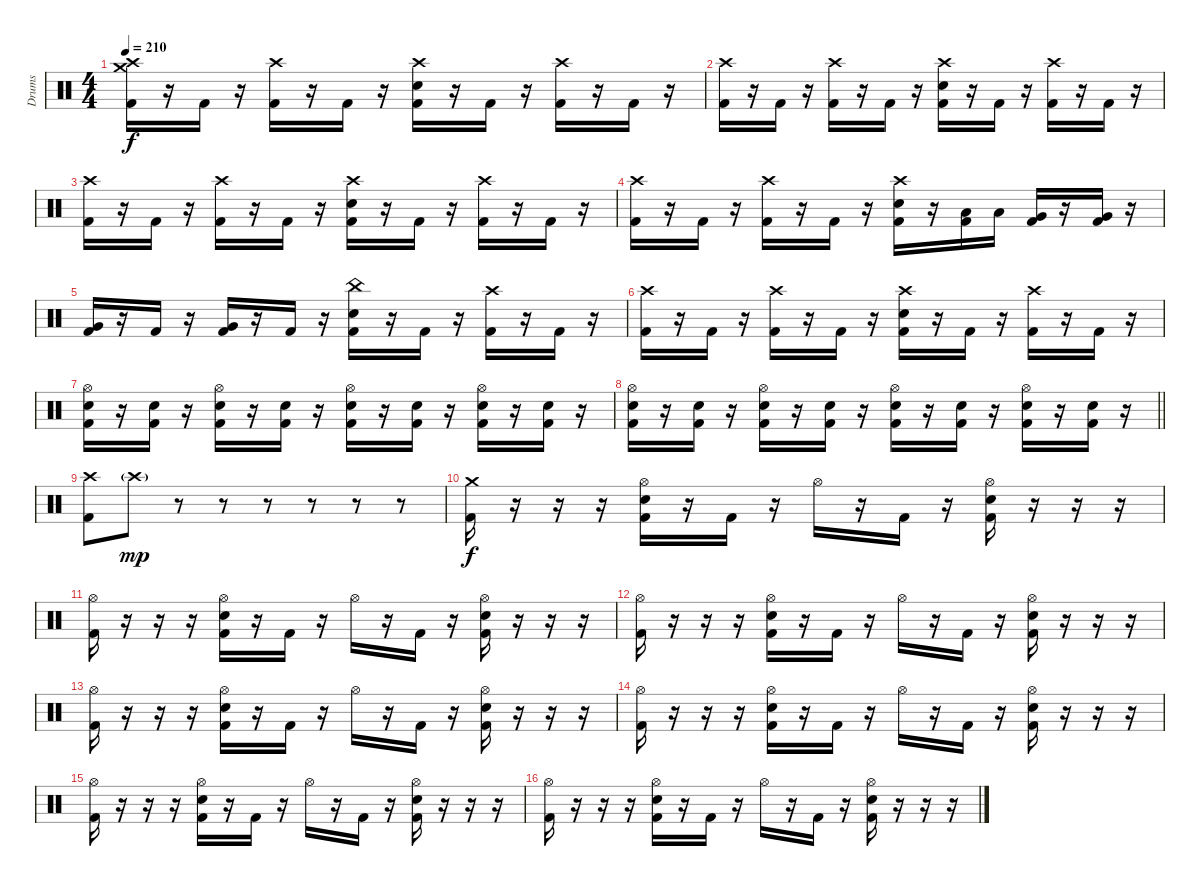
\track ("Drums" "Drums") {instrument percussion}
\staff {score}
\articulation defaults
\ts (4 4)
\tempo 210
\clef neutral
\ks c
("Crash high (hit)" "Crash medium (hit)" "Kick (hit) 2").16{dy f} r.16 "Kick (hit) 2".16 r.16 ("Crash high (hit)" "Kick (hit) 2").16 r.16 "Kick (hit) 2".16 r.16 ("Crash high (hit)" "Electric Snare (hit)" "Kick (hit) 2").16 r.16 "Kick (hit) 2".16 r.16 ("Crash high (hit)" "Kick (hit) 2").16 r.16 "Kick (hit) 2".16 r.16 |
("Crash high (hit)" "Kick (hit) 2").16 r.16 "Kick (hit) 2".16 r.16 ("Crash high (hit)" "Kick (hit) 2").16 r.16 "Kick (hit) 2".16 r.16 ("Crash high (hit)" "Electric Snare (hit)" "Kick (hit) 2").16 r.16 "Kick (hit) 2".16 r.16 ("Crash high (hit)" "Kick (hit) 2").16 r.16 "Kick (hit) 2".16 r.16 |
("Crash high (hit)" "Kick (hit) 2").16 r.16 "Kick (hit) 2".16 r.16 ("Crash high (hit)" "Kick (hit) 2").16 r.16 "Kick (hit) 2".16 r.16 ("Crash high (hit)" "Electric Snare (hit)" "Kick (hit) 2").16 r.16 "Kick (hit) 2".16 r.16 ("Crash high (hit)" "Kick (hit) 2").16 r.16 "Kick (hit) 2".16 r.16 |
("Crash high (hit)" "Kick (hit) 2").16 r.16 "Kick (hit) 2".16 r.16 ("Crash high (hit)" "Kick (hit) 2").16 r.16 "Kick (hit) 2".16 r.16 ("Crash high (hit)" "Electric Snare (hit)" "Kick (hit) 2").16 r.16 ("Low Tom (hit)" "Kick (hit) 2").16 "Low Tom (hit)".16 ("Very Low Tom (hit)" "Kick (hit) 2").16 r.16 ("Very Low Tom (hit)" "Kick (hit) 2").16 r.16 |
("Very Low Tom (hit)" "Kick (hit) 2").16 r.16 "Kick (hit) 2".16 r.16 ("Very Low Tom (hit)" "Kick (hit) 2").16 r.16 "Kick (hit) 2".16 r.16 ("China (hit)" "Electric Snare (hit)" "Kick (hit) 2").16 r.16 "Kick (hit) 2".16 r.16 ("Crash high (hit)" "Kick (hit) 2").16 r.16 "Kick (hit) 2".16 r.16 |
("Crash high (hit)" "Kick (hit) 2").16 r.16 "Kick (hit) 2".16 r.16 ("Crash high (hit)" "Kick (hit) 2").16 r.16 "Kick (hit) 2".16 r.16 ("Crash high (hit)" "Electric Snare (hit)" "Kick (hit) 2").16 r.16 "Kick (hit) 2".16 r.16 ("Crash high (hit)" "Kick (hit) 2").16 r.16 "Kick (hit) 2".16 r.16 |
("Hi-Hat (open)" "Electric Snare (hit)" "Kick (hit) 2").16 r.16 ("Electric Snare (hit)" "Kick (hit) 2").16 r.16 ("Hi-Hat (open)" "Electric Snare (hit)" "Kick (hit) 2").16 r.16 ("Electric Snare (hit)" "Kick (hit) 2").16 r.16 ("Hi-Hat (open)" "Electric Snare (hit)" "Kick (hit) 2").16 r.16 ("Electric Snare (hit)" "Kick (hit) 2").16 r.16 ("Hi-Hat (open)" "Electric Snare (hit)" "Kick (hit) 2").16 r.16 ("Electric Snare (hit)" "Kick (hit) 2").16 r.16 |
\barLineRight lightlight
("Hi-Hat (open)" "Electric Snare (hit)" "Kick (hit) 2").16 r.16 ("Electric Snare (hit)" "Kick (hit) 2").16 r.16 ("Hi-Hat (open)" "Electric Snare (hit)" "Kick (hit) 2").16 r.16 ("Electric Snare (hit)" "Kick (hit) 2").16 r.16 ("Hi-Hat (open)" "Electric Snare (hit)" "Kick (hit) 2").16 r.16 ("Electric Snare (hit)" "Kick (hit) 2").16 r.16 ("Hi-Hat (open)" "Electric Snare (hit)" "Kick (hit) 2").16 r.16 ("Electric Snare (hit)" "Kick (hit) 2").16 r.16 |
("Crash high (hit)" "Kick (hit) 2").8 "Crash high (hit)"{g}.8{dy mp volume 0} r.8 r.8 r.8 r.8 r.8 r.8 |
("Crash medium (hit)" "Kick (hit) 2").16{dy f volume 16} r.16 r.16 r.16 ("Hi-Hat (open)" "Electric Snare (hit)" "Kick (hit) 2").16 r.16 "Kick (hit) 2".16 r.16 "Hi-Hat (open)".16 r.16 "Kick (hit) 2".16 r.16 ("Hi-Hat (open)" "Electric Snare (hit)" "Kick (hit) 2").16 r.16 r.16 r.16 |
("Hi-Hat (open)" "Kick (hit) 2").16 r.16 r.16 r.16 ("Hi-Hat (open)" "Electric Snare (hit)" "Kick (hit) 2").16 r.16 "Kick (hit) 2".16 r.16 "Hi-Hat (open)".16 r.16 "Kick (hit) 2".16 r.16 ("Hi-Hat (open)" "Electric Snare (hit)" "Kick (hit) 2").16 r.16 r.16 r.16 |
("Hi-Hat (open)" "Kick (hit) 2").16 r.16 r.16 r.16 ("Hi-Hat (open)" "Electric Snare (hit)" "Kick (hit) 2").16 r.16 "Kick (hit) 2".16 r.16 "Hi-Hat (open)".16 r.16 "Kick (hit) 2".16 r.16 ("Hi-Hat (open)" "Electric Snare (hit)" "Kick (hit) 2").16 r.16 r.16 r.16 |
("Hi-Hat (open)" "Kick (hit) 2").16 r.16 r.16 r.16 ("Hi-Hat (open)" "Electric Snare (hit)" "Kick (hit) 2").16 r.16 "Kick (hit) 2".16 r.16 "Hi-Hat (open)".16 r.16 "Kick (hit) 2".16 r.16 ("Hi-Hat (open)" "Electric Snare (hit)" "Kick (hit) 2").16 r.16 r.16 r.16 |
("Hi-Hat (open)" "Kick (hit) 2").16 r.16 r.16 r.16 ("Hi-Hat (open)" "Electric Snare (hit)" "Kick (hit) 2").16 r.16 "Kick (hit) 2".16 r.16 "Hi-Hat (open)".16 r.16 "Kick (hit) 2".16 r.16 ("Hi-Hat (open)" "Electric Snare (hit)" "Kick (hit) 2").16 r.16 r.16 r.16 |
("Hi-Hat (open)" "Kick (hit) 2").16 r.16 r.16 r.16 ("Hi-Hat (open)" "Electric Snare (hit)" "Kick (hit) 2").16 r.16 "Kick (hit) 2".16 r.16 "Hi-Hat (open)".16 r.16 "Kick (hit) 2".16 r.16 ("Hi-Hat (open)" "Electric Snare (hit)" "Kick (hit) 2").16 r.16 r.16 r.16 |
("Hi-Hat (open)" "Kick (hit) 2").16 r.16 r.16 r.16 ("Hi-Hat (open)" "Electric Snare (hit)" "Kick (hit) 2").16 r.16 "Kick (hit) 2".16 r.16 "Hi-Hat (open)".16 r.16 "Kick (hit) 2".16 r.16 ("Hi-Hat (open)" "Electric Snare (hit)" "Kick (hit) 2").16 r.16 r.16 r.16
